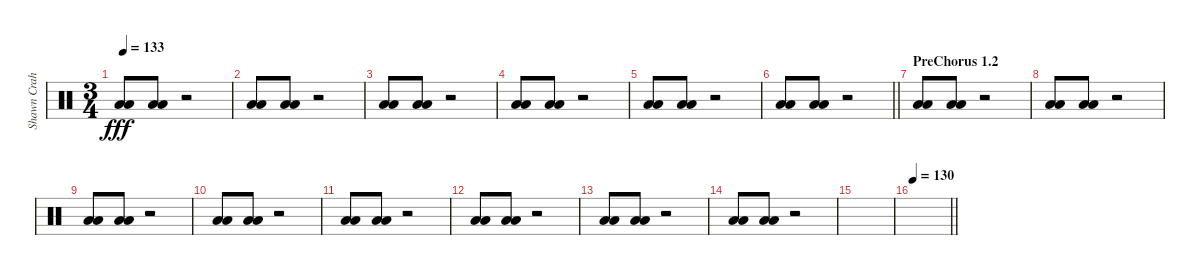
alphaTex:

\track ("Shawn Crahan" "Shawn Crah") {instrument percussion}
\staff {score}
\articulation defaults
\ts (3 4)
\tempo 133
\clef neutral
\ks c
("Low Floor Tom (hit)" "Low Floor Tom (hit)").8{dy fff} ("Low Floor Tom (hit)" "Low Floor Tom (hit)").8 r.2 |
("Low Floor Tom (hit)" "Low Floor Tom (hit)").8 ("Low Floor Tom (hit)" "Low Floor Tom (hit)").8 r.2 |
("Low Floor Tom (hit)" "Low Floor Tom (hit)").8 ("Low Floor Tom (hit)" "Low Floor Tom (hit)").8 r.2 |
("Low Floor Tom (hit)" "Low Floor Tom (hit)").8 ("Low Floor Tom (hit)" "Low Floor Tom (hit)").8 r.2 |
("Low Floor Tom (hit)" "Low Floor Tom (hit)").8 ("Low Floor Tom (hit)" "Low Floor Tom (hit)").8 r.2 |
\barLineRight lightlight
("Low Floor Tom (hit)" "Low Floor Tom (hit)").8 ("Low Floor Tom (hit)" "Low Floor Tom (hit)").8 r.2 |
\section ("" "PreChorus 1.2")
("Low Floor Tom (hit)" "Low Floor Tom (hit)").8 ("Low Floor Tom (hit)" "Low Floor Tom (hit)").8 r.2 |
("Low Floor Tom (hit)" "Low Floor Tom (hit)").8 ("Low Floor Tom (hit)" "Low Floor Tom (hit)").8 r.2 |
("Low Floor Tom (hit)" "Low Floor Tom (hit)").8 ("Low Floor Tom (hit)" "Low Floor Tom (hit)").8 r.2 |
("Low Floor Tom (hit)" "Low Floor Tom (hit)").8 ("Low Floor Tom (hit)" "Low Floor Tom (hit)").8 r.2 |
("Low Floor Tom (hit)" "Low Floor Tom (hit)").8 ("Low Floor Tom (hit)" "Low Floor Tom (hit)").8 r.2 |
("Low Floor Tom (hit)" "Low Floor Tom (hit)").8 ("Low Floor Tom (hit)" "Low Floor Tom (hit)").8 r.2 |
("Low Floor Tom (hit)" "Low Floor Tom (hit)").8 ("Low Floor Tom (hit)" "Low Floor Tom (hit)").8 r.2 |
("Low Floor Tom (hit)" "Low Floor Tom (hit)").8 ("Low Floor Tom (hit)" "Low Floor Tom (hit)").8 r.2 |
|
\tempo 130
\barLineRight lightlight
